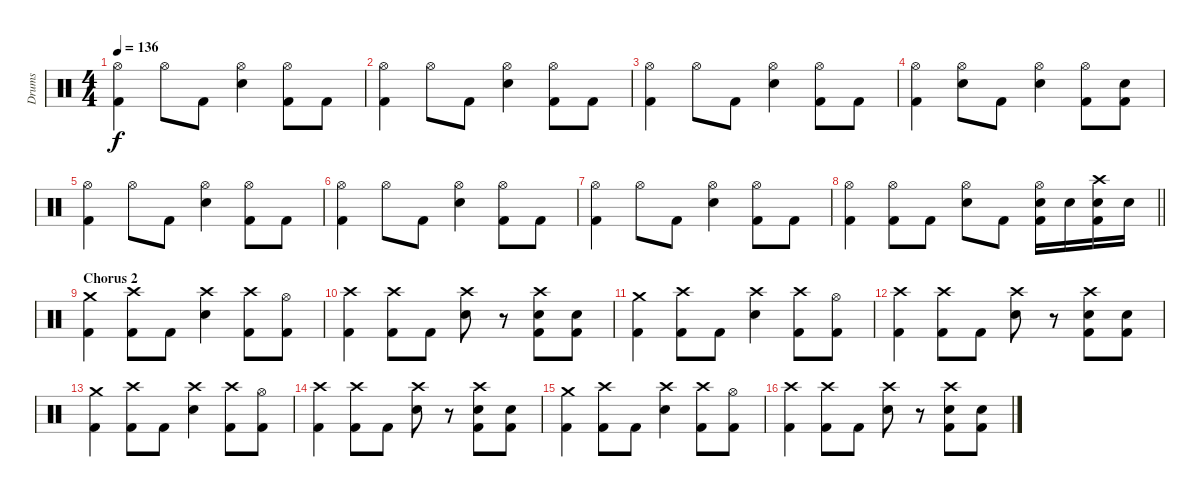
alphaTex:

\track ("Drums" "Drums") {instrument percussion}
\staff {score}
\articulation defaults
\ts (4 4)
\tempo 136
\clef neutral
\ks c
("Hi-Hat (open)" "Kick (hit) 2").4{dy f} "Hi-Hat (open)".8 "Kick (hit) 2".8 ("Hi-Hat (open)" "Snare (hit) 2").4 ("Hi-Hat (open)" "Kick (hit) 2").8 "Kick (hit) 2".8 |
("Hi-Hat (open)" "Kick (hit) 2").4 "Hi-Hat (open)".8 "Kick (hit) 2".8 ("Hi-Hat (open)" "Snare (hit) 2").4 ("Hi-Hat (open)" "Kick (hit) 2").8 "Kick (hit) 2".8 |
("Hi-Hat (open)" "Kick (hit) 2").4 "Hi-Hat (open)".8 "Kick (hit) 2".8 ("Hi-Hat (open)" "Snare (hit) 2").4 ("Hi-Hat (open)" "Kick (hit) 2").8 "Kick (hit) 2".8 |
("Hi-Hat (open)" "Kick (hit) 2").4 ("Hi-Hat (open)" "Snare (hit) 2").8 "Kick (hit) 2".8 ("Hi-Hat (open)" "Snare (hit) 2").4 ("Hi-Hat (open)" "Kick (hit) 2").8 ("Snare (hit) 2" "Kick (hit) 2").8 |
("Hi-Hat (open)" "Kick (hit) 2").4 "Hi-Hat (open)".8 "Kick (hit) 2".8 ("Hi-Hat (open)" "Snare (hit) 2").4 ("Hi-Hat (open)" "Kick (hit) 2").8 "Kick (hit) 2".8 |
("Hi-Hat (open)" "Kick (hit) 2").4 "Hi-Hat (open)".8 "Kick (hit) 2".8 ("Hi-Hat (open)" "Snare (hit) 2").4 ("Hi-Hat (open)" "Kick (hit) 2").8 "Kick (hit) 2".8 |
("Hi-Hat (open)" "Kick (hit) 2").4 "Hi-Hat (open)".8 "Kick (hit) 2".8 ("Hi-Hat (open)" "Snare (hit) 2").4 ("Hi-Hat (open)" "Kick (hit) 2").8 "Kick (hit) 2".8 |
\barLineRight lightlight
("Hi-Hat (open)" "Kick (hit) 2").4 ("Hi-Hat (open)" "Kick (hit) 2").8 "Kick (hit) 2".8 ("Hi-Hat (open)" "Snare (hit) 2").8 "Kick (hit) 2".8 ("Hi-Hat (open)" "Snare (hit) 2" "Kick (hit) 2").16 "Snare (hit) 2".16 ("Crash high (hit)" "Snare (hit) 2" "Kick (hit) 2").16 "Snare (hit) 2".16 |
\section ("" "Chorus 2")
("Crash medium (hit)" "Kick (hit) 2").4 ("Crash high (hit)" "Kick (hit) 2").8 "Kick (hit) 2".8 ("Crash high (hit)" "Snare (hit) 2").4 ("Crash high (hit)" "Kick (hit) 2").8 ("Hi-Hat (open)" "Kick (hit) 2").8 |
("Crash high (hit)" "Kick (hit) 2").4 ("Crash high (hit)" "Kick (hit) 2").8 "Kick (hit) 2".8 ("Crash high (hit)" "Snare (hit) 2").8 r.8 ("Crash high (hit)" "Snare (hit) 2" "Kick (hit) 2").8 ("Snare (hit) 2" "Kick (hit) 2").8 |
("Crash medium (hit)" "Kick (hit) 2").4 ("Crash high (hit)" "Kick (hit) 2").8 "Kick (hit) 2".8 ("Crash high (hit)" "Snare (hit) 2").4 ("Crash high (hit)" "Kick (hit) 2").8 ("Hi-Hat (open)" "Kick (hit) 2").8 |
("Crash high (hit)" "Kick (hit) 2").4 ("Crash high (hit)" "Kick (hit) 2").8 "Kick (hit) 2".8 ("Crash high (hit)" "Snare (hit) 2").8 r.8 ("Crash high (hit)" "Snare (hit) 2" "Kick (hit) 2").8 ("Snare (hit) 2" "Kick (hit) 2").8 |
("Crash medium (hit)" "Kick (hit) 2").4 ("Crash high (hit)" "Kick (hit) 2").8 "Kick (hit) 2".8 ("Crash high (hit)" "Snare (hit) 2").4 ("Crash high (hit)" "Kick (hit) 2").8 ("Hi-Hat (open)" "Kick (hit) 2").8 |
("Crash high (hit)" "Kick (hit) 2").4 ("Crash high (hit)" "Kick (hit) 2").8 "Kick (hit) 2".8 ("Crash high (hit)" "Snare (hit) 2").8 r.8 ("Crash high (hit)" "Snare (hit) 2" "Kick (hit) 2").8 ("Snare (hit) 2" "Kick (hit) 2").8 |
("Crash medium (hit)" "Kick (hit) 2").4 ("Crash high (hit)" "Kick (hit) 2").8 "Kick (hit) 2".8 ("Crash high (hit)" "Snare (hit) 2").4 ("Crash high (hit)" "Kick (hit) 2").8 ("Hi-Hat (open)" "Kick (hit) 2").8 |
("Crash high (hit)" "Kick (hit) 2").4 ("Crash high (hit)" "Kick (hit) 2").8 "Kick (hit) 2".8 ("Crash high (hit)" "Snare (hit) 2").8 r.8 ("Crash high (hit)" "Snare (hit) 2" "Kick (hit) 2").8 ("Snare (hit) 2" "Kick (hit) 2").8
